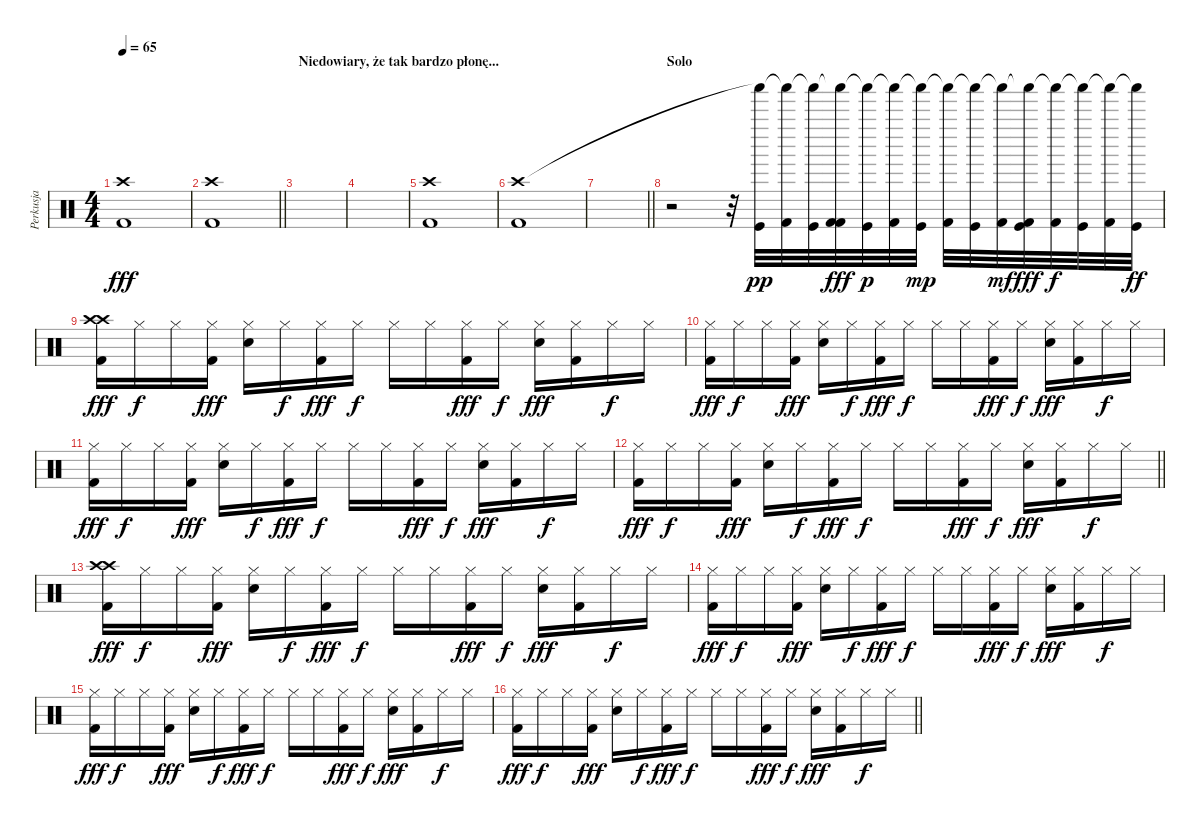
\track ("Perkusja" "Perkusja") {instrument percussion}
\staff {score}
\articulation defaults
\ts (4 4)
\tempo 65
\clef neutral
\ks c
("Crash high (hit)" "Kick (hit) 2").1{dy fff} |
\barLineRight lightlight
("Crash high (hit)" "Kick (hit) 2").1 |
\section ("" "Niedowiary, że tak bardzo płonę...")
|
|
("Crash high (hit)" "Kick (hit) 2").1 |
("Crash high (hit)" "Kick (hit) 2").1 |
\barLineRight lightlight
|
\section ("" "Solo")
r.2 r.32 ("Shaker (hit)"{t} "Kick (hit)").32{dy pp} ("Shaker (hit)"{t} "Kick (hit) 2").32 ("Shaker (hit)"{t} "Kick (hit)").32 ("Shaker (hit)"{t} "Kick (hit) 2" "Kick (hit) 2").32{dy fff} ("Shaker (hit)"{t} "Kick (hit)").32{dy p} ("Shaker (hit)"{t} "Kick (hit) 2").32 ("Shaker (hit)"{t} "Kick (hit)").32{dy mp} ("Shaker (hit)"{t} "Kick (hit) 2").32 ("Shaker (hit)"{t} "Kick (hit)").32 ("Shaker (hit)"{t} "Kick (hit) 2").32{dy mf} ("Shaker (hit)"{t} "Kick (hit)" "Kick (hit) 2").32{dy fff} ("Shaker (hit)"{t} "Kick (hit) 2").32{dy f} ("Shaker (hit)"{t} "Kick (hit)").32 ("Shaker (hit)"{t} "Kick (hit) 2").32 ("Shaker (hit)"{t} "Kick (hit)").32{dy ff} |
("Crash high (hit)" "Crash high (hit)" "Kick (hit) 2").16{dy fff} "Hi-Hat (closed)".16{dy f} "Hi-Hat (closed)".16 ("Hi-Hat (closed)" "Kick (hit) 2").16{dy fff} ("Hi-Hat (closed)" "Snare (hit) 2").16 "Hi-Hat (closed)".16{dy f} ("Hi-Hat (closed)" "Kick (hit) 2").16{dy fff} "Hi-Hat (closed)".16{dy f} "Hi-Hat (closed)".16 "Hi-Hat (closed)".16 ("Hi-Hat (closed)" "Kick (hit) 2").16{dy fff} "Hi-Hat (closed)".16{dy f} ("Hi-Hat (closed)" "Snare (hit) 2").16{dy fff} ("Hi-Hat (closed)" "Kick (hit) 2").16 "Hi-Hat (closed)".16{dy f} "Hi-Hat (closed)".16 |
("Hi-Hat (closed)" "Kick (hit) 2").16{dy fff} "Hi-Hat (closed)".16{dy f} "Hi-Hat (closed)".16 ("Hi-Hat (closed)" "Kick (hit) 2").16{dy fff} ("Hi-Hat (closed)" "Snare (hit) 2").16 "Hi-Hat (closed)".16{dy f} ("Hi-Hat (closed)" "Kick (hit) 2").16{dy fff} "Hi-Hat (closed)".16{dy f} "Hi-Hat (closed)".16 "Hi-Hat (closed)".16 ("Hi-Hat (closed)" "Kick (hit) 2").16{dy fff} "Hi-Hat (closed)".16{dy f} ("Hi-Hat (closed)" "Snare (hit) 2").16{dy fff} ("Hi-Hat (closed)" "Kick (hit) 2").16 "Hi-Hat (closed)".16{dy f} "Hi-Hat (closed)".16 |
("Hi-Hat (closed)" "Kick (hit) 2").16{dy fff} "Hi-Hat (closed)".16{dy f} "Hi-Hat (closed)".16 ("Hi-Hat (closed)" "Kick (hit) 2").16{dy fff} ("Hi-Hat (closed)" "Snare (hit) 2").16 "Hi-Hat (closed)".16{dy f} ("Hi-Hat (closed)" "Kick (hit) 2").16{dy fff} "Hi-Hat (closed)".16{dy f} "Hi-Hat (closed)".16 "Hi-Hat (closed)".16 ("Hi-Hat (closed)" "Kick (hit) 2").16{dy fff} "Hi-Hat (closed)".16{dy f} ("Hi-Hat (closed)" "Snare (hit) 2").16{dy fff} ("Hi-Hat (closed)" "Kick (hit) 2").16 "Hi-Hat (closed)".16{dy f} "Hi-Hat (closed)".16 |
\barLineRight lightlight
("Hi-Hat (closed)" "Kick (hit) 2").16{dy fff} "Hi-Hat (closed)".16{dy f} "Hi-Hat (closed)".16 ("Hi-Hat (closed)" "Kick (hit) 2").16{dy fff} ("Hi-Hat (closed)" "Snare (hit) 2").16 "Hi-Hat (closed)".16{dy f} ("Hi-Hat (closed)" "Kick (hit) 2").16{dy fff} "Hi-Hat (closed)".16{dy f} "Hi-Hat (closed)".16 "Hi-Hat (closed)".16 ("Hi-Hat (closed)" "Kick (hit) 2").16{dy fff} "Hi-Hat (closed)".16{dy f} ("Hi-Hat (closed)" "Snare (hit) 2").16{dy fff} ("Hi-Hat (closed)" "Kick (hit) 2").16 "Hi-Hat (closed)".16{dy f} "Hi-Hat (closed)".16 |
("Crash high (hit)" "Crash high (hit)" "Kick (hit) 2").16{dy fff} "Hi-Hat (closed)".16{dy f} "Hi-Hat (closed)".16 ("Hi-Hat (closed)" "Kick (hit) 2").16{dy fff} ("Hi-Hat (closed)" "Snare (hit) 2").16 "Hi-Hat (closed)".16{dy f} ("Hi-Hat (closed)" "Kick (hit) 2").16{dy fff} "Hi-Hat (closed)".16{dy f} "Hi-Hat (closed)".16 "Hi-Hat (closed)".16 ("Hi-Hat (closed)" "Kick (hit) 2").16{dy fff} "Hi-Hat (closed)".16{dy f} ("Hi-Hat (closed)" "Snare (hit) 2").16{dy fff} ("Hi-Hat (closed)" "Kick (hit) 2").16 "Hi-Hat (closed)".16{dy f} "Hi-Hat (closed)".16 |
("Hi-Hat (closed)" "Kick (hit) 2").16{dy fff} "Hi-Hat (closed)".16{dy f} "Hi-Hat (closed)".16 ("Hi-Hat (closed)" "Kick (hit) 2").16{dy fff} ("Hi-Hat (closed)" "Snare (hit) 2").16 "Hi-Hat (closed)".16{dy f} ("Hi-Hat (closed)" "Kick (hit) 2").16{dy fff} "Hi-Hat (closed)".16{dy f} "Hi-Hat (closed)".16 "Hi-Hat (closed)".16 ("Hi-Hat (closed)" "Kick (hit) 2").16{dy fff} "Hi-Hat (closed)".16{dy f} ("Hi-Hat (closed)" "Snare (hit) 2").16{dy fff} ("Hi-Hat (closed)" "Kick (hit) 2").16 "Hi-Hat (closed)".16{dy f} "Hi-Hat (closed)".16 |
("Hi-Hat (closed)" "Kick (hit) 2").16{dy fff} "Hi-Hat (closed)".16{dy f} "Hi-Hat (closed)".16 ("Hi-Hat (closed)" "Kick (hit) 2").16{dy fff} ("Hi-Hat (closed)" "Snare (hit) 2").16 "Hi-Hat (closed)".16{dy f} ("Hi-Hat (closed)" "Kick (hit) 2").16{dy fff} "Hi-Hat (closed)".16{dy f} "Hi-Hat (closed)".16 "Hi-Hat (closed)".16 ("Hi-Hat (closed)" "Kick (hit) 2").16{dy fff} "Hi-Hat (closed)".16{dy f} ("Hi-Hat (closed)" "Snare (hit) 2").16{dy fff} ("Hi-Hat (closed)" "Kick (hit) 2").16 "Hi-Hat (closed)".16{dy f} "Hi-Hat (closed)".16 |
\barLineRight lightlight
("Hi-Hat (closed)" "Kick (hit) 2").16{dy fff} "Hi-Hat (closed)".16{dy f} "Hi-Hat (closed)".16 ("Hi-Hat (closed)" "Kick (hit) 2").16{dy fff} ("Hi-Hat (closed)" "Snare (hit) 2").16 "Hi-Hat (closed)".16{dy f} ("Hi-Hat (closed)" "Kick (hit) 2").16{dy fff} "Hi-Hat (closed)".16{dy f} "Hi-Hat (closed)".16 "Hi-Hat (closed)".16 ("Hi-Hat (closed)" "Kick (hit) 2").16{dy fff} "Hi-Hat (closed)".16{dy f} ("Hi-Hat (closed)" "Snare (hit) 2").16{dy fff} ("Hi-Hat (closed)" "Kick (hit) 2").16 "Hi-Hat (closed)".16{dy f} "Hi-Hat (closed)".16
